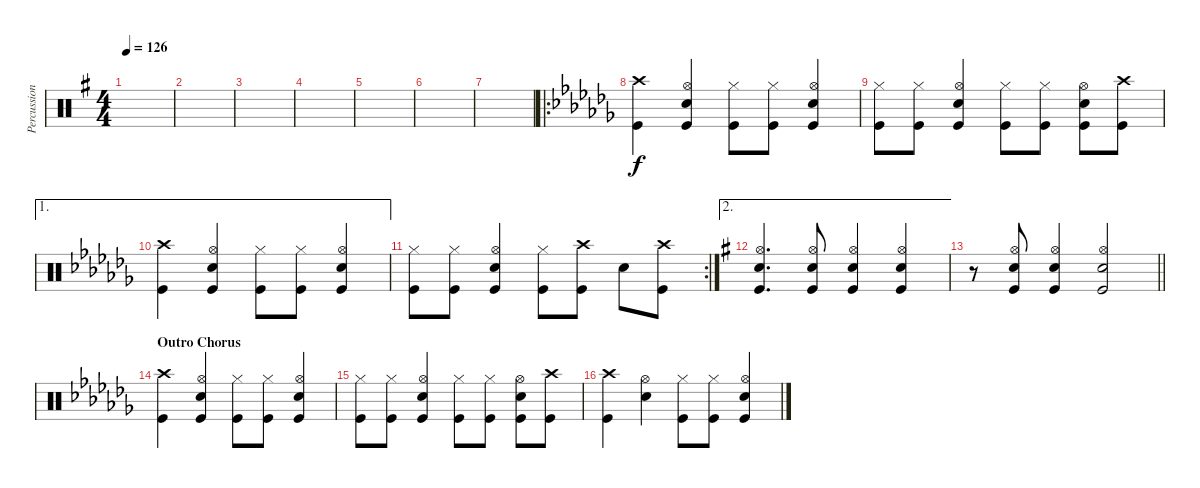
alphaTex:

\track ("Percussion" "Percussion") {instrument percussion}
\staff {score}
\articulation defaults
\ts (4 4)
\tempo 126
\clef neutral
\ks g
|
|
|
|
|
|
|
\ro
\ks cb
("Kick (hit)" "Crash high (hit)").4 ("Hi-Hat (open)" "Snare (hit) 2" "Kick (hit)").4 ("Hi-Hat (closed)" "Kick (hit)").8 ("Kick (hit)" "Hi-Hat (closed)").8 ("Hi-Hat (open)" "Snare (hit) 2" "Kick (hit)").4 |
("Hi-Hat (closed)" "Kick (hit)").8 ("Hi-Hat (closed)" "Kick (hit)").8 ("Snare (hit) 2" "Kick (hit)" "Hi-Hat (open)").4 ("Hi-Hat (closed)" "Kick (hit)").8 ("Kick (hit)" "Hi-Hat (closed)").8 ("Kick (hit)" "Snare (hit) 2" "Hi-Hat (open)").8 ("Crash high (hit)" "Kick (hit)").8 |
\ae 1
("Kick (hit)" "Crash high (hit)").4 ("Hi-Hat (open)" "Snare (hit) 2" "Kick (hit)").4 ("Hi-Hat (closed)" "Kick (hit)").8 ("Kick (hit)" "Hi-Hat (closed)").8 ("Hi-Hat (open)" "Snare (hit) 2" "Kick (hit)").4 |
\rc 2
("Kick (hit)" "Hi-Hat (closed)").8 ("Kick (hit)" "Hi-Hat (closed)").8 ("Kick (hit)" "Hi-Hat (open)" "Snare (hit) 2").4 ("Hi-Hat (closed)" "Kick (hit)").8 ("Crash high (hit)" "Kick (hit)").8 "Snare (hit) 2".8 ("Kick (hit)" "Crash high (hit)").8 |
\ae 2
\ks g
("Kick (hit)" "Hi-Hat (open)" "Snare (hit) 2").4{d} ("Kick (hit)" "Hi-Hat (open)" "Snare (hit) 2").8 ("Kick (hit)" "Hi-Hat (open)" "Snare (hit) 2").4 ("Kick (hit)" "Hi-Hat (open)" "Snare (hit) 2").4 |
\barLineRight lightlight
r.8 ("Kick (hit)" "Hi-Hat (open)" "Snare (hit) 2").8 ("Kick (hit)" "Hi-Hat (open)" "Snare (hit) 2").4 ("Kick (hit)" "Hi-Hat (open)" "Snare (hit) 2").2 |
\section ("" "Outro Chorus")
\ks cb
("Crash high (hit)" "Kick (hit)").4 ("Kick (hit)" "Snare (hit) 2" "Hi-Hat (open)").4 ("Hi-Hat (closed)" "Kick (hit)").8 ("Hi-Hat (closed)" "Kick (hit)").8 ("Hi-Hat (open)" "Kick (hit)" "Snare (hit) 2").4 |
("Hi-Hat (closed)" "Kick (hit)").8 ("Hi-Hat (closed)" "Kick (hit)").8 ("Hi-Hat (open)" "Kick (hit)" "Snare (hit) 2").4 ("Hi-Hat (closed)" "Kick (hit)").8 ("Hi-Hat (closed)" "Kick (hit)").8 ("Kick (hit)" "Hi-Hat (open)" "Snare (hit) 2").8 ("Crash high (hit)" "Kick (hit)").8 |
("Crash high (hit)" "Kick (hit)").4 ("Hi-Hat (open)" "Snare (hit) 2").4 ("Hi-Hat (closed)" "Kick (hit)").8 ("Hi-Hat (closed)" "Kick (hit)").8 ("Hi-Hat (open)" "Kick (hit)" "Snare (hit) 2").4
